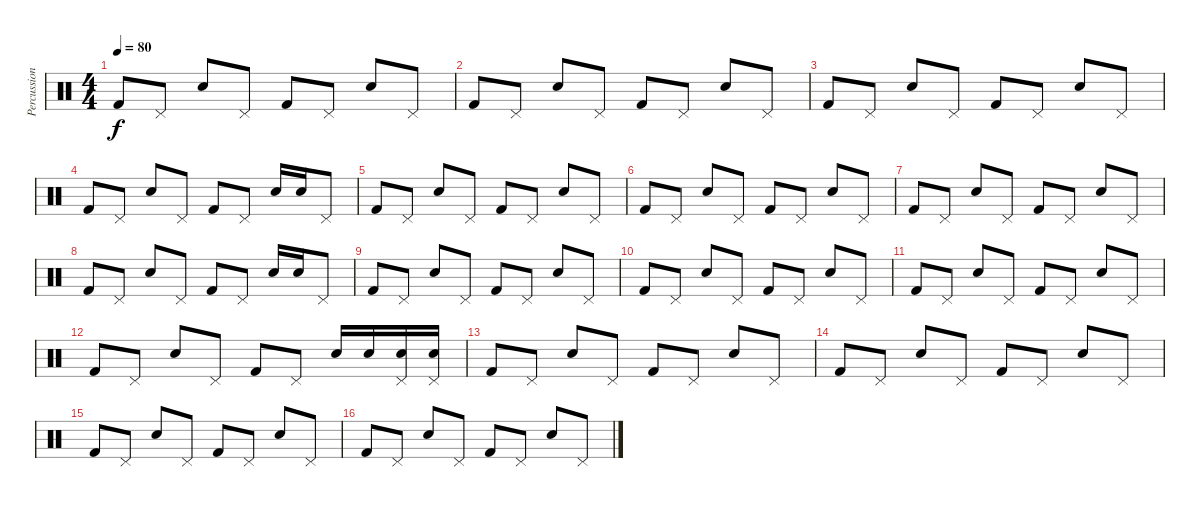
\track ("Percussion" "Percussion") {instrument percussion}
\staff {score}
\articulation defaults
\ts (4 4)
\tempo 80
\clef neutral
\ks c "Kick (hit) 2".8{dy f} "Pedal Hi-Hat (hit)".8 "Electric Snare (hit)".8 "Pedal Hi-Hat (hit)".8 "Kick (hit) 2".8 "Pedal Hi-Hat (hit)".8 "Electric Snare (hit)".8 "Pedal Hi-Hat (hit)".8
|
"Kick (hit) 2".8 "Pedal Hi-Hat (hit)".8 "Electric Snare (hit)".8 "Pedal Hi-Hat (hit)".8 "Kick (hit) 2".8 "Pedal Hi-Hat (hit)".8 "Electric Snare (hit)".8 "Pedal Hi-Hat (hit)".8 |
"Kick (hit) 2".8 "Pedal Hi-Hat (hit)".8 "Electric Snare (hit)".8 "Pedal Hi-Hat (hit)".8 "Kick (hit) 2".8 "Pedal Hi-Hat (hit)".8 "Electric Snare (hit)".8 "Pedal Hi-Hat (hit)".8 |
"Kick (hit) 2".8 "Pedal Hi-Hat (hit)".8 "Electric Snare (hit)".8 "Pedal Hi-Hat (hit)".8 "Kick (hit) 2".8 "Pedal Hi-Hat (hit)".8 "Electric Snare (hit)".16 "Electric Snare (hit)".16 "Pedal Hi-Hat (hit)".8 |
"Kick (hit) 2".8 "Pedal Hi-Hat (hit)".8 "Electric Snare (hit)".8 "Pedal Hi-Hat (hit)".8 "Kick (hit) 2".8 "Pedal Hi-Hat (hit)".8 "Electric Snare (hit)".8 "Pedal Hi-Hat (hit)".8 |
"Kick (hit) 2".8 "Pedal Hi-Hat (hit)".8 "Electric Snare (hit)".8 "Pedal Hi-Hat (hit)".8 "Kick (hit) 2".8 "Pedal Hi-Hat (hit)".8 "Electric Snare (hit)".8 "Pedal Hi-Hat (hit)".8 |
"Kick (hit) 2".8 "Pedal Hi-Hat (hit)".8 "Electric Snare (hit)".8 "Pedal Hi-Hat (hit)".8 "Kick (hit) 2".8 "Pedal Hi-Hat (hit)".8 "Electric Snare (hit)".8 "Pedal Hi-Hat (hit)".8 |
"Kick (hit) 2".8 "Pedal Hi-Hat (hit)".8 "Electric Snare (hit)".8 "Pedal Hi-Hat (hit)".8 "Kick (hit) 2".8 "Pedal Hi-Hat (hit)".8 "Electric Snare (hit)".16 "Electric Snare (hit)".16 "Pedal Hi-Hat (hit)".8 |
"Kick (hit) 2".8 "Pedal Hi-Hat (hit)".8 "Electric Snare (hit)".8 "Pedal Hi-Hat (hit)".8 "Kick (hit) 2".8 "Pedal Hi-Hat (hit)".8 "Electric Snare (hit)".8 "Pedal Hi-Hat (hit)".8 |
"Kick (hit) 2".8 "Pedal Hi-Hat (hit)".8 "Electric Snare (hit)".8 "Pedal Hi-Hat (hit)".8 "Kick (hit) 2".8 "Pedal Hi-Hat (hit)".8 "Electric Snare (hit)".8 "Pedal Hi-Hat (hit)".8 |
"Kick (hit) 2".8 "Pedal Hi-Hat (hit)".8 "Electric Snare (hit)".8 "Pedal Hi-Hat (hit)".8 "Kick (hit) 2".8 "Pedal Hi-Hat (hit)".8 "Electric Snare (hit)".8 "Pedal Hi-Hat (hit)".8 |
"Kick (hit) 2".8 "Pedal Hi-Hat (hit)".8 "Electric Snare (hit)".8 "Pedal Hi-Hat (hit)".8 "Kick (hit) 2".8 "Pedal Hi-Hat (hit)".8 "Electric Snare (hit)".16 "Electric Snare (hit)".16 ("Pedal Hi-Hat (hit)" "Electric Snare (hit)").16 ("Pedal Hi-Hat (hit)" "Electric Snare (hit)").16 |
"Kick (hit) 2".8 "Pedal Hi-Hat (hit)".8 "Electric Snare (hit)".8 "Pedal Hi-Hat (hit)".8 "Kick (hit) 2".8 "Pedal Hi-Hat (hit)".8 "Electric Snare (hit)".8 "Pedal Hi-Hat (hit)".8 |
"Kick (hit) 2".8 "Pedal Hi-Hat (hit)".8 "Electric Snare (hit)".8 "Pedal Hi-Hat (hit)".8 "Kick (hit) 2".8 "Pedal Hi-Hat (hit)".8 "Electric Snare (hit)".8 "Pedal Hi-Hat (hit)".8 |
"Kick (hit) 2".8 "Pedal Hi-Hat (hit)".8 "Electric Snare (hit)".8 "Pedal Hi-Hat (hit)".8 "Kick (hit) 2".8 "Pedal Hi-Hat (hit)".8 "Electric Snare (hit)".8 "Pedal Hi-Hat (hit)".8 |
"Kick (hit) 2".8 "Pedal Hi-Hat (hit)".8 "Electric Snare (hit)".8 "Pedal Hi-Hat (hit)".8 "Kick (hit) 2".8 "Pedal Hi-Hat (hit)".8 "Electric Snare (hit)".8 "Pedal Hi-Hat (hit)".8
